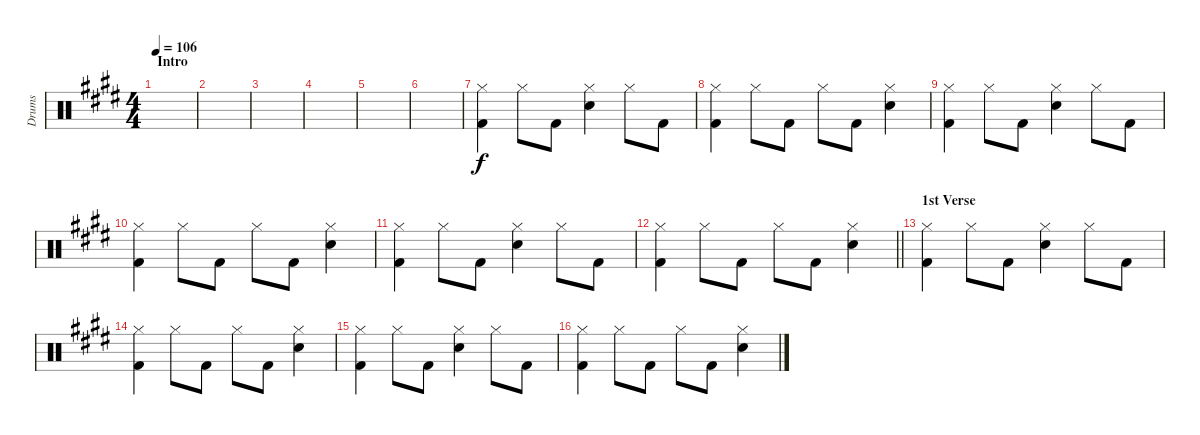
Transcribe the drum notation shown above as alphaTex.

\track ("Drums" "Drums") {instrument percussion}
\staff {score}
\articulation defaults
\ts (4 4)
\section ("" "Intro")
\tempo 106
\clef neutral
\ks e
|
|
|
|
|
|
("Hi-Hat (closed)" "Kick (hit) 2").4 "Hi-Hat (closed)".8 "Kick (hit) 2".8 ("Hi-Hat (closed)" "Snare (hit) 2").4 "Hi-Hat (closed)".8 "Kick (hit) 2".8 |
("Hi-Hat (closed)" "Kick (hit) 2").4 "Hi-Hat (closed)".8 "Kick (hit) 2".8 "Hi-Hat (closed)".8 "Kick (hit) 2".8 ("Hi-Hat (closed)" "Snare (hit) 2").4 |
("Hi-Hat (closed)" "Kick (hit) 2").4 "Hi-Hat (closed)".8 "Kick (hit) 2".8 ("Hi-Hat (closed)" "Snare (hit) 2").4 "Hi-Hat (closed)".8 "Kick (hit) 2".8 |
("Hi-Hat (closed)" "Kick (hit) 2").4 "Hi-Hat (closed)".8 "Kick (hit) 2".8 "Hi-Hat (closed)".8 "Kick (hit) 2".8 ("Hi-Hat (closed)" "Snare (hit) 2").4 |
("Hi-Hat (closed)" "Kick (hit) 2").4 "Hi-Hat (closed)".8 "Kick (hit) 2".8 ("Hi-Hat (closed)" "Snare (hit) 2").4 "Hi-Hat (closed)".8 "Kick (hit) 2".8 |
\barLineRight lightlight
("Hi-Hat (closed)" "Kick (hit) 2").4 "Hi-Hat (closed)".8 "Kick (hit) 2".8 "Hi-Hat (closed)".8 "Kick (hit) 2".8 ("Hi-Hat (closed)" "Snare (hit) 2").4 |
\section ("" "1st Verse")
("Hi-Hat (closed)" "Kick (hit) 2").4 "Hi-Hat (closed)".8 "Kick (hit) 2".8 ("Hi-Hat (closed)" "Snare (hit) 2").4 "Hi-Hat (closed)".8 "Kick (hit) 2".8 |
("Hi-Hat (closed)" "Kick (hit) 2").4 "Hi-Hat (closed)".8 "Kick (hit) 2".8 "Hi-Hat (closed)".8 "Kick (hit) 2".8 ("Hi-Hat (closed)" "Snare (hit) 2").4 |
("Hi-Hat (closed)" "Kick (hit) 2").4 "Hi-Hat (closed)".8 "Kick (hit) 2".8 ("Hi-Hat (closed)" "Snare (hit) 2").4 "Hi-Hat (closed)".8 "Kick (hit) 2".8 |
("Hi-Hat (closed)" "Kick (hit) 2").4 "Hi-Hat (closed)".8 "Kick (hit) 2".8 "Hi-Hat (closed)".8 "Kick (hit) 2".8 ("Hi-Hat (closed)" "Snare (hit) 2").4
